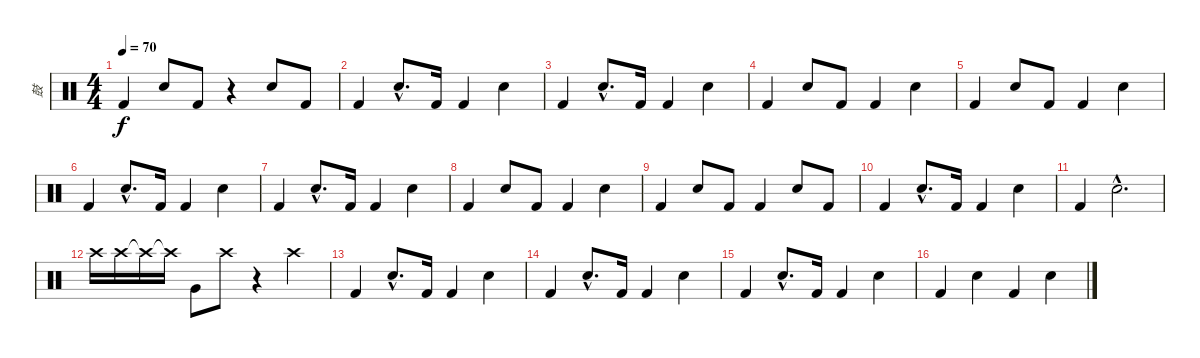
\track ("鼓" "鼓") {instrument percussion}
\staff {score}
\articulation defaults
\ts (4 4)
\tempo 70
\clef neutral
\ks c "Kick (hit) 2".4{dy f} "Electric Snare (hit)".8 "Kick (hit) 2".8
r.4 "Electric Snare (hit)".8 "Kick (hit) 2".8 |
"Kick (hit) 2".4 "Electric Snare (hit)"{hac}.8{d} "Kick (hit) 2".16 "Kick (hit) 2".4 "Electric Snare (hit)".4 |
"Kick (hit) 2".4 "Electric Snare (hit)"{hac}.8{d} "Kick (hit) 2".16 "Kick (hit) 2".4 "Electric Snare (hit)".4 |
"Kick (hit) 2".4 "Electric Snare (hit)".8 "Kick (hit) 2".8 "Kick (hit) 2".4 "Electric Snare (hit)".4 |
"Kick (hit) 2".4 "Electric Snare (hit)".8 "Kick (hit) 2".8 "Kick (hit) 2".4 "Electric Snare (hit)".4 |
"Kick (hit) 2".4 "Electric Snare (hit)"{hac}.8{d} "Kick (hit) 2".16 "Kick (hit) 2".4 "Electric Snare (hit)".4 |
"Kick (hit) 2".4 "Electric Snare (hit)"{hac}.8{d} "Kick (hit) 2".16 "Kick (hit) 2".4 "Electric Snare (hit)".4 |
"Kick (hit) 2".4 "Electric Snare (hit)".8 "Kick (hit) 2".8 "Kick (hit) 2".4 "Electric Snare (hit)".4 |
"Kick (hit) 2".4 "Electric Snare (hit)".8 "Kick (hit) 2".8 "Kick (hit) 2".4 "Electric Snare (hit)".8 "Kick (hit) 2".8 |
"Kick (hit) 2".4 "Electric Snare (hit)"{hac}.8{d} "Kick (hit) 2".16 "Kick (hit) 2".4 "Electric Snare (hit)".4 |
"Kick (hit) 2".4 "Electric Snare (hit)"{hac}.2{d} |
"Crash high (hit)".16 "Crash high (hit)".16 "Crash high (hit)"{t}.16 "Crash high (hit)"{t}.16 "Very Low Tom (hit)".8 "Crash high (hit)".8 r.4 "Crash high (hit)".4 |
"Kick (hit) 2".4 "Electric Snare (hit)"{hac}.8{d} "Kick (hit) 2".16 "Kick (hit) 2".4 "Electric Snare (hit)".4 |
"Kick (hit) 2".4 "Electric Snare (hit)"{hac}.8{d} "Kick (hit) 2".16 "Kick (hit) 2".4 "Electric Snare (hit)".4 |
"Kick (hit) 2".4 "Electric Snare (hit)"{hac}.8{d} "Kick (hit) 2".16 "Kick (hit) 2".4 "Electric Snare (hit)".4 |
"Kick (hit) 2".4 "Electric Snare (hit)".4 "Kick (hit) 2".4 "Electric Snare (hit)".4
